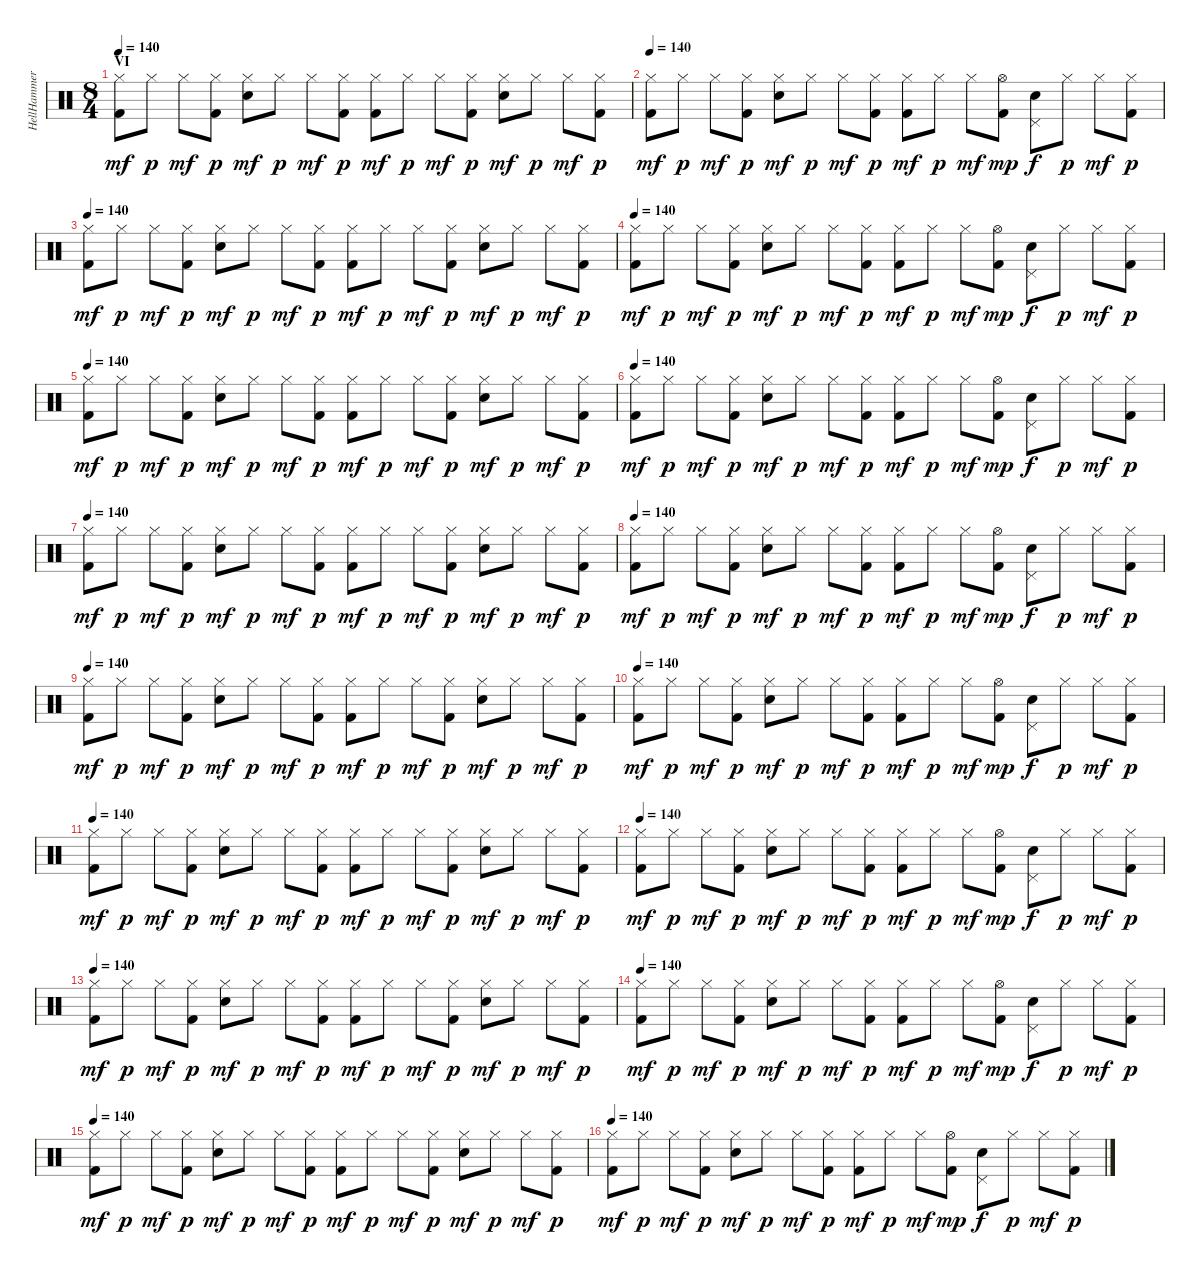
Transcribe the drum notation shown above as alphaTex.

\track ("HellHammer" "HellHammer") {instrument percussion}
\staff {score}
\articulation defaults
\ts (8 4)
\section ("" "VI")
\tempo 140
\clef neutral
\ks c
("Kick (hit) 2" "Hi-Hat (closed)").8{dy mf} "Hi-Hat (closed)".8{dy p} "Hi-Hat (closed)".8{dy mf} ("Kick (hit) 2" "Hi-Hat (closed)").8{dy p} ("Electric Snare (hit)" "Hi-Hat (closed)").8{dy mf} "Hi-Hat (closed)".8{dy p} "Hi-Hat (closed)".8{dy mf} ("Kick (hit) 2" "Hi-Hat (closed)").8{dy p} ("Kick (hit) 2" "Hi-Hat (closed)").8{dy mf} "Hi-Hat (closed)".8{dy p} "Hi-Hat (closed)".8{dy mf} ("Kick (hit) 2" "Hi-Hat (closed)").8{dy p} ("Electric Snare (hit)" "Hi-Hat (closed)").8{dy mf} "Hi-Hat (closed)".8{dy p} "Hi-Hat (closed)".8{dy mf} ("Kick (hit) 2" "Hi-Hat (closed)").8{dy p} |
\tempo 140
("Kick (hit) 2" "Hi-Hat (closed)").8{dy mf} "Hi-Hat (closed)".8{dy p} "Hi-Hat (closed)".8{dy mf} ("Kick (hit) 2" "Hi-Hat (closed)").8{dy p} ("Electric Snare (hit)" "Hi-Hat (closed)").8{dy mf} "Hi-Hat (closed)".8{dy p} "Hi-Hat (closed)".8{dy mf} ("Kick (hit) 2" "Hi-Hat (closed)").8{dy p} ("Kick (hit) 2" "Hi-Hat (closed)").8{dy mf} "Hi-Hat (closed)".8{dy p} "Hi-Hat (closed)".8{dy mf} ("Kick (hit) 2" "Hi-Hat (open)").8{dy mp} ("Electric Snare (hit)" "Pedal Hi-Hat (hit)").8{dy f} "Hi-Hat (closed)".8{dy p} "Hi-Hat (closed)".8{dy mf} ("Kick (hit) 2" "Hi-Hat (closed)").8{dy p} |
\tempo 140
("Kick (hit) 2" "Hi-Hat (closed)").8{dy mf} "Hi-Hat (closed)".8{dy p} "Hi-Hat (closed)".8{dy mf} ("Kick (hit) 2" "Hi-Hat (closed)").8{dy p} ("Electric Snare (hit)" "Hi-Hat (closed)").8{dy mf} "Hi-Hat (closed)".8{dy p} "Hi-Hat (closed)".8{dy mf} ("Kick (hit) 2" "Hi-Hat (closed)").8{dy p} ("Kick (hit) 2" "Hi-Hat (closed)").8{dy mf} "Hi-Hat (closed)".8{dy p} "Hi-Hat (closed)".8{dy mf} ("Kick (hit) 2" "Hi-Hat (closed)").8{dy p} ("Electric Snare (hit)" "Hi-Hat (closed)").8{dy mf} "Hi-Hat (closed)".8{dy p} "Hi-Hat (closed)".8{dy mf} ("Kick (hit) 2" "Hi-Hat (closed)").8{dy p} |
\tempo 140
("Kick (hit) 2" "Hi-Hat (closed)").8{dy mf} "Hi-Hat (closed)".8{dy p} "Hi-Hat (closed)".8{dy mf} ("Kick (hit) 2" "Hi-Hat (closed)").8{dy p} ("Electric Snare (hit)" "Hi-Hat (closed)").8{dy mf} "Hi-Hat (closed)".8{dy p} "Hi-Hat (closed)".8{dy mf} ("Kick (hit) 2" "Hi-Hat (closed)").8{dy p} ("Kick (hit) 2" "Hi-Hat (closed)").8{dy mf} "Hi-Hat (closed)".8{dy p} "Hi-Hat (closed)".8{dy mf} ("Kick (hit) 2" "Hi-Hat (open)").8{dy mp} ("Electric Snare (hit)" "Pedal Hi-Hat (hit)").8{dy f} "Hi-Hat (closed)".8{dy p} "Hi-Hat (closed)".8{dy mf} ("Kick (hit) 2" "Hi-Hat (closed)").8{dy p} |
\tempo 140
("Kick (hit) 2" "Hi-Hat (closed)").8{dy mf} "Hi-Hat (closed)".8{dy p} "Hi-Hat (closed)".8{dy mf} ("Kick (hit) 2" "Hi-Hat (closed)").8{dy p} ("Electric Snare (hit)" "Hi-Hat (closed)").8{dy mf} "Hi-Hat (closed)".8{dy p} "Hi-Hat (closed)".8{dy mf} ("Kick (hit) 2" "Hi-Hat (closed)").8{dy p} ("Kick (hit) 2" "Hi-Hat (closed)").8{dy mf} "Hi-Hat (closed)".8{dy p} "Hi-Hat (closed)".8{dy mf} ("Kick (hit) 2" "Hi-Hat (closed)").8{dy p} ("Electric Snare (hit)" "Hi-Hat (closed)").8{dy mf} "Hi-Hat (closed)".8{dy p} "Hi-Hat (closed)".8{dy mf} ("Kick (hit) 2" "Hi-Hat (closed)").8{dy p} |
\tempo 140
("Kick (hit) 2" "Hi-Hat (closed)").8{dy mf} "Hi-Hat (closed)".8{dy p} "Hi-Hat (closed)".8{dy mf} ("Kick (hit) 2" "Hi-Hat (closed)").8{dy p} ("Electric Snare (hit)" "Hi-Hat (closed)").8{dy mf} "Hi-Hat (closed)".8{dy p} "Hi-Hat (closed)".8{dy mf} ("Kick (hit) 2" "Hi-Hat (closed)").8{dy p} ("Kick (hit) 2" "Hi-Hat (closed)").8{dy mf} "Hi-Hat (closed)".8{dy p} "Hi-Hat (closed)".8{dy mf} ("Kick (hit) 2" "Hi-Hat (open)").8{dy mp} ("Electric Snare (hit)" "Pedal Hi-Hat (hit)").8{dy f} "Hi-Hat (closed)".8{dy p} "Hi-Hat (closed)".8{dy mf} ("Kick (hit) 2" "Hi-Hat (closed)").8{dy p} |
\tempo 140
("Kick (hit) 2" "Hi-Hat (closed)").8{dy mf} "Hi-Hat (closed)".8{dy p} "Hi-Hat (closed)".8{dy mf} ("Kick (hit) 2" "Hi-Hat (closed)").8{dy p} ("Electric Snare (hit)" "Hi-Hat (closed)").8{dy mf} "Hi-Hat (closed)".8{dy p} "Hi-Hat (closed)".8{dy mf} ("Kick (hit) 2" "Hi-Hat (closed)").8{dy p} ("Kick (hit) 2" "Hi-Hat (closed)").8{dy mf} "Hi-Hat (closed)".8{dy p} "Hi-Hat (closed)".8{dy mf} ("Kick (hit) 2" "Hi-Hat (closed)").8{dy p} ("Electric Snare (hit)" "Hi-Hat (closed)").8{dy mf} "Hi-Hat (closed)".8{dy p} "Hi-Hat (closed)".8{dy mf} ("Kick (hit) 2" "Hi-Hat (closed)").8{dy p} |
\tempo 140
("Kick (hit) 2" "Hi-Hat (closed)").8{dy mf} "Hi-Hat (closed)".8{dy p} "Hi-Hat (closed)".8{dy mf} ("Kick (hit) 2" "Hi-Hat (closed)").8{dy p} ("Electric Snare (hit)" "Hi-Hat (closed)").8{dy mf} "Hi-Hat (closed)".8{dy p} "Hi-Hat (closed)".8{dy mf} ("Kick (hit) 2" "Hi-Hat (closed)").8{dy p} ("Kick (hit) 2" "Hi-Hat (closed)").8{dy mf} "Hi-Hat (closed)".8{dy p} "Hi-Hat (closed)".8{dy mf} ("Kick (hit) 2" "Hi-Hat (open)").8{dy mp} ("Electric Snare (hit)" "Pedal Hi-Hat (hit)").8{dy f} "Hi-Hat (closed)".8{dy p} "Hi-Hat (closed)".8{dy mf} ("Kick (hit) 2" "Hi-Hat (closed)").8{dy p} |
\tempo 140
("Kick (hit) 2" "Hi-Hat (closed)").8{dy mf} "Hi-Hat (closed)".8{dy p} "Hi-Hat (closed)".8{dy mf} ("Kick (hit) 2" "Hi-Hat (closed)").8{dy p} ("Electric Snare (hit)" "Hi-Hat (closed)").8{dy mf} "Hi-Hat (closed)".8{dy p} "Hi-Hat (closed)".8{dy mf} ("Kick (hit) 2" "Hi-Hat (closed)").8{dy p} ("Kick (hit) 2" "Hi-Hat (closed)").8{dy mf} "Hi-Hat (closed)".8{dy p} "Hi-Hat (closed)".8{dy mf} ("Kick (hit) 2" "Hi-Hat (closed)").8{dy p} ("Electric Snare (hit)" "Hi-Hat (closed)").8{dy mf} "Hi-Hat (closed)".8{dy p} "Hi-Hat (closed)".8{dy mf} ("Kick (hit) 2" "Hi-Hat (closed)").8{dy p} |
\tempo 140
("Kick (hit) 2" "Hi-Hat (closed)").8{dy mf} "Hi-Hat (closed)".8{dy p} "Hi-Hat (closed)".8{dy mf} ("Kick (hit) 2" "Hi-Hat (closed)").8{dy p} ("Electric Snare (hit)" "Hi-Hat (closed)").8{dy mf} "Hi-Hat (closed)".8{dy p} "Hi-Hat (closed)".8{dy mf} ("Kick (hit) 2" "Hi-Hat (closed)").8{dy p} ("Kick (hit) 2" "Hi-Hat (closed)").8{dy mf} "Hi-Hat (closed)".8{dy p} "Hi-Hat (closed)".8{dy mf} ("Kick (hit) 2" "Hi-Hat (open)").8{dy mp} ("Electric Snare (hit)" "Pedal Hi-Hat (hit)").8{dy f} "Hi-Hat (closed)".8{dy p} "Hi-Hat (closed)".8{dy mf} ("Kick (hit) 2" "Hi-Hat (closed)").8{dy p} |
\tempo 140
("Kick (hit) 2" "Hi-Hat (closed)").8{dy mf} "Hi-Hat (closed)".8{dy p} "Hi-Hat (closed)".8{dy mf} ("Kick (hit) 2" "Hi-Hat (closed)").8{dy p} ("Electric Snare (hit)" "Hi-Hat (closed)").8{dy mf} "Hi-Hat (closed)".8{dy p} "Hi-Hat (closed)".8{dy mf} ("Kick (hit) 2" "Hi-Hat (closed)").8{dy p} ("Kick (hit) 2" "Hi-Hat (closed)").8{dy mf} "Hi-Hat (closed)".8{dy p} "Hi-Hat (closed)".8{dy mf} ("Kick (hit) 2" "Hi-Hat (closed)").8{dy p} ("Electric Snare (hit)" "Hi-Hat (closed)").8{dy mf} "Hi-Hat (closed)".8{dy p} "Hi-Hat (closed)".8{dy mf} ("Kick (hit) 2" "Hi-Hat (closed)").8{dy p} |
\tempo 140
("Kick (hit) 2" "Hi-Hat (closed)").8{dy mf} "Hi-Hat (closed)".8{dy p} "Hi-Hat (closed)".8{dy mf} ("Kick (hit) 2" "Hi-Hat (closed)").8{dy p} ("Electric Snare (hit)" "Hi-Hat (closed)").8{dy mf} "Hi-Hat (closed)".8{dy p} "Hi-Hat (closed)".8{dy mf} ("Kick (hit) 2" "Hi-Hat (closed)").8{dy p} ("Kick (hit) 2" "Hi-Hat (closed)").8{dy mf} "Hi-Hat (closed)".8{dy p} "Hi-Hat (closed)".8{dy mf} ("Kick (hit) 2" "Hi-Hat (open)").8{dy mp} ("Electric Snare (hit)" "Pedal Hi-Hat (hit)").8{dy f} "Hi-Hat (closed)".8{dy p} "Hi-Hat (closed)".8{dy mf} ("Kick (hit) 2" "Hi-Hat (closed)").8{dy p} |
\tempo 140
("Kick (hit) 2" "Hi-Hat (closed)").8{dy mf} "Hi-Hat (closed)".8{dy p} "Hi-Hat (closed)".8{dy mf} ("Kick (hit) 2" "Hi-Hat (closed)").8{dy p} ("Electric Snare (hit)" "Hi-Hat (closed)").8{dy mf} "Hi-Hat (closed)".8{dy p} "Hi-Hat (closed)".8{dy mf} ("Kick (hit) 2" "Hi-Hat (closed)").8{dy p} ("Kick (hit) 2" "Hi-Hat (closed)").8{dy mf} "Hi-Hat (closed)".8{dy p} "Hi-Hat (closed)".8{dy mf} ("Kick (hit) 2" "Hi-Hat (closed)").8{dy p} ("Electric Snare (hit)" "Hi-Hat (closed)").8{dy mf} "Hi-Hat (closed)".8{dy p} "Hi-Hat (closed)".8{dy mf} ("Kick (hit) 2" "Hi-Hat (closed)").8{dy p} |
\tempo 140
("Kick (hit) 2" "Hi-Hat (closed)").8{dy mf} "Hi-Hat (closed)".8{dy p} "Hi-Hat (closed)".8{dy mf} ("Kick (hit) 2" "Hi-Hat (closed)").8{dy p} ("Electric Snare (hit)" "Hi-Hat (closed)").8{dy mf} "Hi-Hat (closed)".8{dy p} "Hi-Hat (closed)".8{dy mf} ("Kick (hit) 2" "Hi-Hat (closed)").8{dy p} ("Kick (hit) 2" "Hi-Hat (closed)").8{dy mf} "Hi-Hat (closed)".8{dy p} "Hi-Hat (closed)".8{dy mf} ("Kick (hit) 2" "Hi-Hat (open)").8{dy mp} ("Electric Snare (hit)" "Pedal Hi-Hat (hit)").8{dy f} "Hi-Hat (closed)".8{dy p} "Hi-Hat (closed)".8{dy mf} ("Kick (hit) 2" "Hi-Hat (closed)").8{dy p} |
\tempo 140
("Kick (hit) 2" "Hi-Hat (closed)").8{dy mf} "Hi-Hat (closed)".8{dy p} "Hi-Hat (closed)".8{dy mf} ("Kick (hit) 2" "Hi-Hat (closed)").8{dy p} ("Electric Snare (hit)" "Hi-Hat (closed)").8{dy mf} "Hi-Hat (closed)".8{dy p} "Hi-Hat (closed)".8{dy mf} ("Kick (hit) 2" "Hi-Hat (closed)").8{dy p} ("Kick (hit) 2" "Hi-Hat (closed)").8{dy mf} "Hi-Hat (closed)".8{dy p} "Hi-Hat (closed)".8{dy mf} ("Kick (hit) 2" "Hi-Hat (closed)").8{dy p} ("Electric Snare (hit)" "Hi-Hat (closed)").8{dy mf} "Hi-Hat (closed)".8{dy p} "Hi-Hat (closed)".8{dy mf} ("Kick (hit) 2" "Hi-Hat (closed)").8{dy p} |
\tempo 140
("Kick (hit) 2" "Hi-Hat (closed)").8{dy mf} "Hi-Hat (closed)".8{dy p} "Hi-Hat (closed)".8{dy mf} ("Kick (hit) 2" "Hi-Hat (closed)").8{dy p} ("Electric Snare (hit)" "Hi-Hat (closed)").8{dy mf} "Hi-Hat (closed)".8{dy p} "Hi-Hat (closed)".8{dy mf} ("Kick (hit) 2" "Hi-Hat (closed)").8{dy p} ("Kick (hit) 2" "Hi-Hat (closed)").8{dy mf} "Hi-Hat (closed)".8{dy p} "Hi-Hat (closed)".8{dy mf} ("Kick (hit) 2" "Hi-Hat (open)").8{dy mp} ("Electric Snare (hit)" "Pedal Hi-Hat (hit)").8{dy f} "Hi-Hat (closed)".8{dy p} "Hi-Hat (closed)".8{dy mf} ("Kick (hit) 2" "Hi-Hat (closed)").8{dy p}
